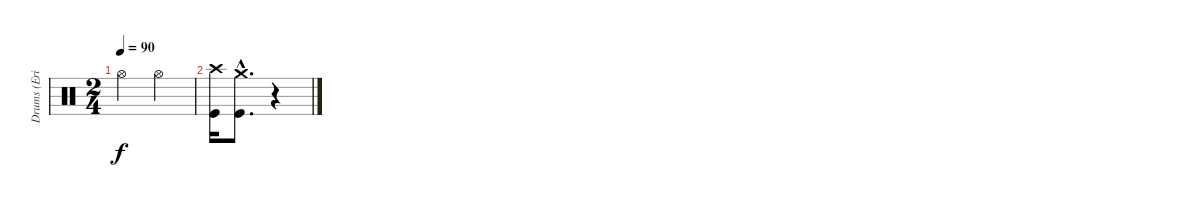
\track ("Drums (Eric Singer)" "Drums (Eri") {instrument percussion}
\staff {score}
\articulation defaults
\ts (2 4)
\tempo 90
\clef neutral
\ks c "Hi-Hat (open)".4{dy f} "Hi-Hat (open)".4
|
("Crash high (hit)" "Kick (hit)").16 ("Crash medium (hit)"{hac} "Kick (hit)"{hac}).8{d} r.4
